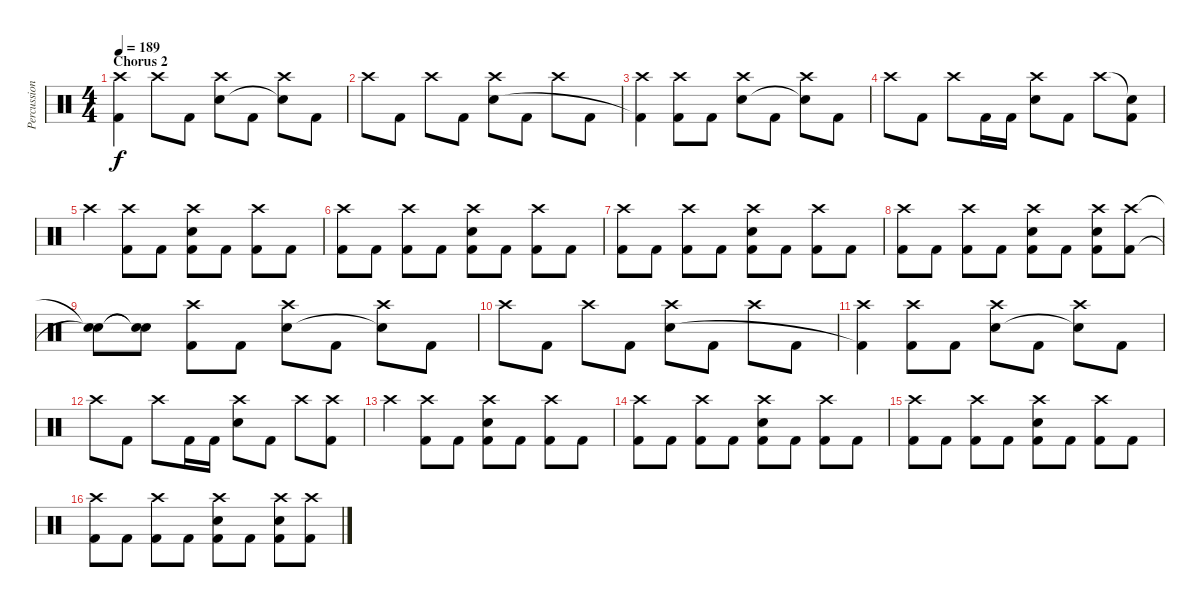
\track ("Percussion" "Percussion") {instrument percussion}
\staff {score}
\articulation defaults
\ts (4 4)
\section ("" "Chorus 2")
\tempo 189
\clef neutral
\ks c
("Crash high (hit)"{t} "Kick (hit) 2"{t}).4{dy f} "Crash high (hit)".8 "Kick (hit) 2".8 ("Crash high (hit)" "Electric Snare (hit)").8 "Kick (hit) 2".8 ("Crash high (hit)" "Snare (hit)"{t}).8 "Kick (hit) 2".8 |
"Crash high (hit)".8 "Kick (hit) 2".8 "Crash high (hit)".8 "Kick (hit) 2".8 ("Crash high (hit)" "Electric Snare (hit)").8 "Kick (hit) 2".8 "Crash high (hit)".8 "Kick (hit) 2".8 |
("Crash high (hit)" "Kick (hit) 2"{t}).4 ("Crash high (hit)" "Kick (hit) 2").8 "Kick (hit) 2".8 ("Crash high (hit)" "Electric Snare (hit)").8 "Kick (hit) 2".8 ("Crash high (hit)" "Snare (hit)"{t}).8 "Kick (hit) 2".8 |
"Crash high (hit)".8 "Kick (hit) 2".8 "Crash high (hit)".8 "Kick (hit) 2".16 "Kick (hit) 2".16 ("Crash high (hit)" "Electric Snare (hit)").8 "Kick (hit) 2".8 "Crash high (hit)".8 ("Snare (hit)"{t} "Kick (hit) 2").8 |
"Crash high (hit)".4 ("Crash high (hit)" "Kick (hit) 2").8 "Kick (hit) 2".8 ("Crash high (hit)" "Electric Snare (hit)" "Kick (hit) 2").8 "Kick (hit) 2".8 ("Crash high (hit)" "Kick (hit) 2").8 "Kick (hit) 2".8 |
("Crash high (hit)" "Kick (hit) 2").8 "Kick (hit) 2".8 ("Crash high (hit)" "Kick (hit) 2").8 "Kick (hit) 2".8 ("Crash high (hit)" "Electric Snare (hit)" "Kick (hit) 2").8 "Kick (hit) 2".8 ("Crash high (hit)" "Kick (hit) 2").8 "Kick (hit) 2".8 |
("Crash high (hit)" "Kick (hit) 2").8 "Kick (hit) 2".8 ("Crash high (hit)" "Kick (hit) 2").8 "Kick (hit) 2".8 ("Crash high (hit)" "Electric Snare (hit)" "Kick (hit) 2").8 "Kick (hit) 2".8 ("Crash high (hit)" "Kick (hit) 2").8 "Kick (hit) 2".8 |
("Crash high (hit)" "Kick (hit) 2").8 "Kick (hit) 2".8 ("Crash high (hit)" "Kick (hit) 2").8 "Kick (hit) 2".8 ("Crash high (hit)" "Electric Snare (hit)" "Kick (hit) 2").8 "Kick (hit) 2".8 ("Crash high (hit)" "Electric Snare (hit)" "Kick (hit) 2").8 ("Crash high (hit)" "Kick (hit) 2").8 |
("Snare (hit)"{t} "Snare (hit)"{t}).8 ("Snare (hit)"{t} "Snare (hit)"{t}).8 ("Crash high (hit)" "Kick (hit) 2").8 "Kick (hit) 2".8 ("Crash high (hit)" "Electric Snare (hit)").8 "Kick (hit) 2".8 ("Crash high (hit)" "Snare (hit)"{t}).8 "Kick (hit) 2".8 |
"Crash high (hit)".8 "Kick (hit) 2".8 "Crash high (hit)".8 "Kick (hit) 2".8 ("Crash high (hit)" "Electric Snare (hit)").8 "Kick (hit) 2".8 "Crash high (hit)".8 "Kick (hit) 2".8 |
("Crash high (hit)" "Kick (hit) 2"{t}).4 ("Crash high (hit)" "Kick (hit) 2").8 "Kick (hit) 2".8 ("Crash high (hit)" "Electric Snare (hit)").8 "Kick (hit) 2".8 ("Crash high (hit)" "Snare (hit)"{t}).8 "Kick (hit) 2".8 |
"Crash high (hit)".8 "Kick (hit) 2".8 "Crash high (hit)".8 "Kick (hit) 2".16 "Kick (hit) 2".16 ("Crash high (hit)" "Electric Snare (hit)").8 "Kick (hit) 2".8 "Crash high (hit)".8 ("Crash high (hit)" "Kick (hit) 2").8 |
"Crash high (hit)".4 ("Crash high (hit)" "Kick (hit) 2").8 "Kick (hit) 2".8 ("Crash high (hit)" "Electric Snare (hit)" "Kick (hit) 2").8 "Kick (hit) 2".8 ("Crash high (hit)" "Kick (hit) 2").8 "Kick (hit) 2".8 |
("Crash high (hit)" "Kick (hit) 2").8 "Kick (hit) 2".8 ("Crash high (hit)" "Kick (hit) 2").8 "Kick (hit) 2".8 ("Crash high (hit)" "Electric Snare (hit)" "Kick (hit) 2").8 "Kick (hit) 2".8 ("Crash high (hit)" "Kick (hit) 2").8 "Kick (hit) 2".8 |
("Crash high (hit)" "Kick (hit) 2").8 "Kick (hit) 2".8 ("Crash high (hit)" "Kick (hit) 2").8 "Kick (hit) 2".8 ("Crash high (hit)" "Electric Snare (hit)" "Kick (hit) 2").8 "Kick (hit) 2".8 ("Crash high (hit)" "Kick (hit) 2").8 "Kick (hit) 2".8 |
("Crash high (hit)" "Kick (hit) 2").8 "Kick (hit) 2".8 ("Crash high (hit)" "Kick (hit) 2").8 "Kick (hit) 2".8 ("Crash high (hit)" "Electric Snare (hit)" "Kick (hit) 2").8 "Kick (hit) 2".8 ("Crash high (hit)" "Electric Snare (hit)" "Kick (hit) 2").8 ("Crash high (hit)" "Kick (hit) 2").8
